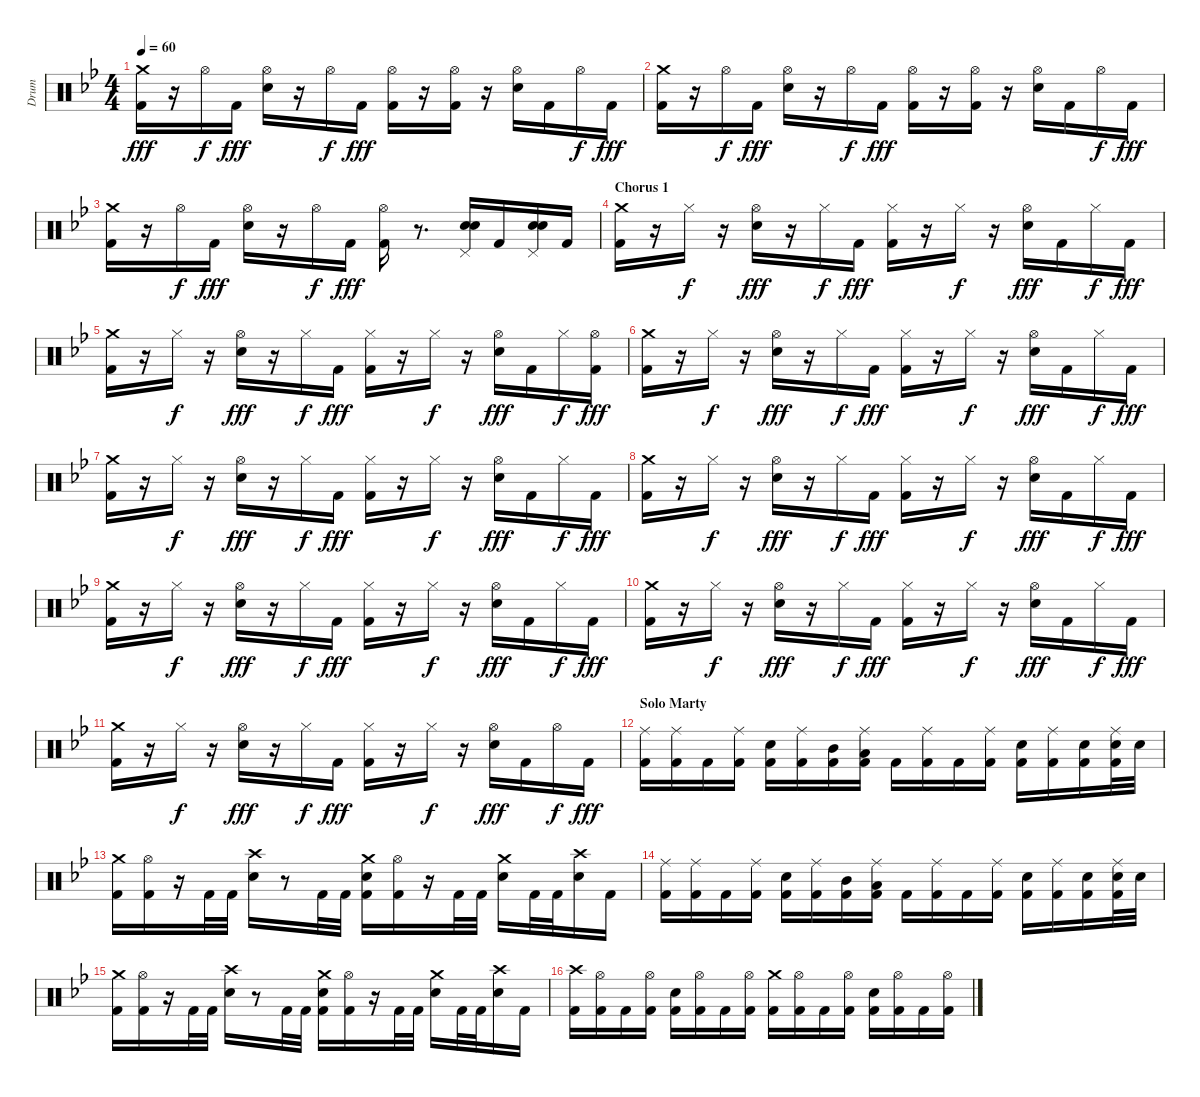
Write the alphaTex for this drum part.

\track ("Drum" "Drum") {instrument percussion}
\staff {score}
\articulation defaults
\ts (4 4)
\tempo 60
\clef neutral
\ks gminor
("Kick (hit) 2" "Crash medium (hit)").16{dy fff} r.16 "Hi-Hat (open)".16{dy f} "Kick (hit) 2".16{dy fff} ("Electric Snare (hit)" "Hi-Hat (open)").16 r.16 "Hi-Hat (open)".16{dy f} "Kick (hit) 2".16{dy fff} ("Kick (hit) 2" "Hi-Hat (open)").16 r.16 ("Kick (hit) 2" "Hi-Hat (open)").16 r.16 ("Electric Snare (hit)" "Hi-Hat (open)").16 "Kick (hit) 2".16 "Hi-Hat (open)".16{dy f} "Kick (hit) 2".16{dy fff} |
("Kick (hit) 2" "Crash medium (hit)").16 r.16 "Hi-Hat (open)".16{dy f} "Kick (hit) 2".16{dy fff} ("Electric Snare (hit)" "Hi-Hat (open)").16 r.16 "Hi-Hat (open)".16{dy f} "Kick (hit) 2".16{dy fff} ("Kick (hit) 2" "Hi-Hat (open)").16 r.16 ("Kick (hit) 2" "Hi-Hat (open)").16 r.16 ("Electric Snare (hit)" "Hi-Hat (open)").16 "Kick (hit) 2".16 "Hi-Hat (open)".16{dy f} "Kick (hit) 2".16{dy fff} |
("Kick (hit) 2" "Crash medium (hit)").16 r.16 "Hi-Hat (open)".16{dy f} "Kick (hit) 2".16{dy fff} ("Electric Snare (hit)" "Hi-Hat (open)").16 r.16 "Hi-Hat (open)".16{dy f} "Kick (hit) 2".16{dy fff} ("Kick (hit) 2" "Hi-Hat (open)").16 r.8{d} ("Electric Snare (hit)" "Electric Snare (hit)" "Pedal Hi-Hat (hit)").16 "Kick (hit) 2".16 ("Electric Snare (hit)" "Electric Snare (hit)" "Pedal Hi-Hat (hit)").16 "Kick (hit) 2".16 |
\section ("" "Chorus 1")
("Kick (hit) 2" "Crash medium (hit)").16 r.16 "Hi-Hat (closed)".16{dy f} r.16 ("Electric Snare (hit)" "Hi-Hat (open)").16{dy fff} r.16 "Hi-Hat (closed)".16{dy f} "Kick (hit) 2".16{dy fff} ("Kick (hit) 2" "Hi-Hat (closed)").16 r.16 "Hi-Hat (closed)".16{dy f} r.16 ("Electric Snare (hit)" "Hi-Hat (open)").16{dy fff} "Kick (hit) 2".16 "Hi-Hat (closed)".16{dy f} "Kick (hit) 2".16{dy fff} |
("Kick (hit) 2" "Crash medium (hit)").16 r.16 "Hi-Hat (closed)".16{dy f} r.16 ("Electric Snare (hit)" "Hi-Hat (open)").16{dy fff} r.16 "Hi-Hat (closed)".16{dy f} "Kick (hit) 2".16{dy fff} ("Kick (hit) 2" "Hi-Hat (closed)").16 r.16 "Hi-Hat (closed)".16{dy f} r.16 ("Electric Snare (hit)" "Hi-Hat (open)").16{dy fff} "Kick (hit) 2".16 "Hi-Hat (closed)".16{dy f} ("Kick (hit) 2" "Hi-Hat (open)").16{dy fff} |
("Kick (hit) 2" "Crash medium (hit)").16 r.16 "Hi-Hat (closed)".16{dy f} r.16 ("Electric Snare (hit)" "Hi-Hat (open)").16{dy fff} r.16 "Hi-Hat (closed)".16{dy f} "Kick (hit) 2".16{dy fff} ("Kick (hit) 2" "Hi-Hat (closed)").16 r.16 "Hi-Hat (closed)".16{dy f} r.16 ("Electric Snare (hit)" "Hi-Hat (open)").16{dy fff} "Kick (hit) 2".16 "Hi-Hat (closed)".16{dy f} "Kick (hit) 2".16{dy fff} |
("Kick (hit) 2" "Crash medium (hit)").16 r.16 "Hi-Hat (closed)".16{dy f} r.16 ("Electric Snare (hit)" "Hi-Hat (open)").16{dy fff} r.16 "Hi-Hat (closed)".16{dy f} "Kick (hit) 2".16{dy fff} ("Kick (hit) 2" "Hi-Hat (closed)").16 r.16 "Hi-Hat (closed)".16{dy f} r.16 ("Electric Snare (hit)" "Hi-Hat (open)").16{dy fff} "Kick (hit) 2".16 "Hi-Hat (closed)".16{dy f} "Kick (hit) 2".16{dy fff} |
("Kick (hit) 2" "Crash medium (hit)").16 r.16 "Hi-Hat (closed)".16{dy f} r.16 ("Electric Snare (hit)" "Hi-Hat (open)").16{dy fff} r.16 "Hi-Hat (closed)".16{dy f} "Kick (hit) 2".16{dy fff} ("Kick (hit) 2" "Hi-Hat (closed)").16 r.16 "Hi-Hat (closed)".16{dy f} r.16 ("Electric Snare (hit)" "Hi-Hat (open)").16{dy fff} "Kick (hit) 2".16 "Hi-Hat (closed)".16{dy f} "Kick (hit) 2".16{dy fff} |
("Kick (hit) 2" "Crash medium (hit)").16 r.16 "Hi-Hat (closed)".16{dy f} r.16 ("Electric Snare (hit)" "Hi-Hat (open)").16{dy fff} r.16 "Hi-Hat (closed)".16{dy f} "Kick (hit) 2".16{dy fff} ("Kick (hit) 2" "Hi-Hat (closed)").16 r.16 "Hi-Hat (closed)".16{dy f} r.16 ("Electric Snare (hit)" "Hi-Hat (open)").16{dy fff} "Kick (hit) 2".16 "Hi-Hat (closed)".16{dy f} "Kick (hit) 2".16{dy fff} |
("Kick (hit) 2" "Crash medium (hit)").16 r.16 "Hi-Hat (closed)".16{dy f} r.16 ("Electric Snare (hit)" "Hi-Hat (open)").16{dy fff} r.16 "Hi-Hat (closed)".16{dy f} "Kick (hit) 2".16{dy fff} ("Kick (hit) 2" "Hi-Hat (closed)").16 r.16 "Hi-Hat (closed)".16{dy f} r.16 ("Electric Snare (hit)" "Hi-Hat (open)").16{dy fff} "Kick (hit) 2".16 "Hi-Hat (closed)".16{dy f} "Kick (hit) 2".16{dy fff} |
("Kick (hit) 2" "Crash medium (hit)").16 r.16 "Hi-Hat (closed)".16{dy f} r.16 ("Electric Snare (hit)" "Hi-Hat (open)").16{dy fff} r.16 "Hi-Hat (closed)".16{dy f} "Kick (hit) 2".16{dy fff} ("Kick (hit) 2" "Hi-Hat (closed)").16 r.16 "Hi-Hat (closed)".16{dy f} r.16 ("Electric Snare (hit)" "Hi-Hat (open)").16{dy fff} "Kick (hit) 2".16 "Hi-Hat (open)".16{dy f} "Kick (hit) 2".16{dy fff} |
\section ("" "Solo Marty")
("Kick (hit) 2" "Ride (middle)").16 ("Kick (hit) 2" "Ride (middle)").16 "Kick (hit) 2".16 ("Kick (hit) 2" "Ride (middle)").16 ("Electric Snare (hit)" "Kick (hit) 2").16 ("Kick (hit) 2" "Ride (middle)").16 ("Kick (hit) 2" "Mid Tom (hit)").16 ("Kick (hit) 2" "Low Tom (hit)" "Ride (middle)").16 "Kick (hit) 2".16 ("Kick (hit) 2" "Ride (middle)").16 "Kick (hit) 2".16 ("Kick (hit) 2" "Ride (middle)").16 ("Electric Snare (hit)" "Kick (hit) 2").16 ("Kick (hit) 2" "Ride (middle)").16 ("Electric Snare (hit)" "Kick (hit) 2").16 ("Electric Snare (hit)" "Kick (hit) 2" "Ride (middle)").32 "Electric Snare (hit)".32 |
("Kick (hit) 2" "Crash medium (hit)").16 ("Kick (hit) 2" "Hi-Hat (open)").16 r.16 "Kick (hit) 2".32 "Kick (hit) 2".32 ("Electric Snare (hit)" "Crash high (hit)").16 r.8 "Kick (hit) 2".32 "Kick (hit) 2".32 ("Kick (hit) 2" "Electric Snare (hit)" "Crash medium (hit)").16 ("Kick (hit) 2" "Hi-Hat (open)").16 r.16 "Kick (hit) 2".32 "Kick (hit) 2".32 ("Electric Snare (hit)" "Crash medium (hit)").16 "Kick (hit) 2".32 "Kick (hit) 2".32 ("Electric Snare (hit)" "Crash high (hit)").16 "Kick (hit) 2".16 |
("Kick (hit) 2" "Ride (middle)").16 ("Kick (hit) 2" "Ride (middle)").16 "Kick (hit) 2".16 ("Kick (hit) 2" "Ride (middle)").16 ("Kick (hit) 2" "Electric Snare (hit)").16 ("Kick (hit) 2" "Ride (middle)").16 ("Kick (hit) 2" "Mid Tom (hit)").16 ("Kick (hit) 2" "Low Tom (hit)" "Ride (middle)").16 "Kick (hit) 2".16 ("Kick (hit) 2" "Ride (middle)").16 "Kick (hit) 2".16 ("Kick (hit) 2" "Ride (middle)").16 ("Electric Snare (hit)" "Kick (hit) 2").16 ("Kick (hit) 2" "Ride (middle)").16 ("Electric Snare (hit)" "Kick (hit) 2").16 ("Kick (hit) 2" "Electric Snare (hit)" "Ride (middle)").32 "Electric Snare (hit)".32 |
("Kick (hit) 2" "Crash medium (hit)").16 ("Kick (hit) 2" "Hi-Hat (open)").16 r.16 "Kick (hit) 2".32 "Kick (hit) 2".32 ("Electric Snare (hit)" "Crash high (hit)").16 r.8 "Kick (hit) 2".32 "Kick (hit) 2".32 ("Kick (hit) 2" "Electric Snare (hit)" "Crash medium (hit)").16 ("Kick (hit) 2" "Hi-Hat (open)").16 r.16 "Kick (hit) 2".32 "Kick (hit) 2".32 ("Electric Snare (hit)" "Crash medium (hit)").16 "Kick (hit) 2".32 "Kick (hit) 2".32 ("Electric Snare (hit)" "Crash high (hit)").16 "Kick (hit) 2".16 |
\section ("" "")
("Kick (hit) 2" "Crash high (hit)").16 ("Kick (hit) 2" "Hi-Hat (open)").16 "Kick (hit) 2".16 ("Kick (hit) 2" "Hi-Hat (open)").16 ("Kick (hit) 2" "Electric Snare (hit)").16 ("Kick (hit) 2" "Hi-Hat (open)").16 "Kick (hit) 2".16 ("Kick (hit) 2" "Hi-Hat (open)").16 ("Kick (hit) 2" "Crash medium (hit)").16 ("Kick (hit) 2" "Hi-Hat (open)").16 "Kick (hit) 2".16 ("Kick (hit) 2" "Hi-Hat (open)").16 ("Electric Snare (hit)" "Kick (hit) 2").16 ("Kick (hit) 2" "Hi-Hat (open)").16 "Kick (hit) 2".16 ("Kick (hit) 2" "Hi-Hat (open)").16
